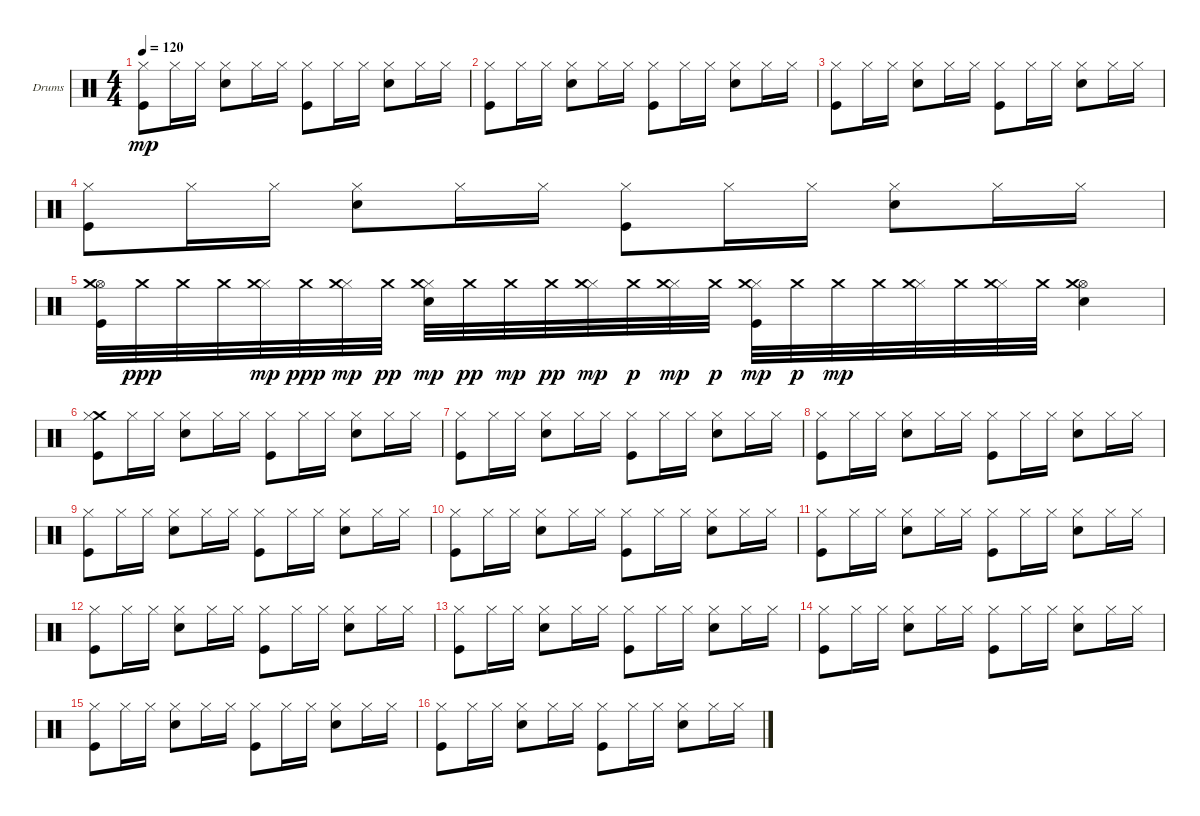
\bracketExtendMode groupsimilarinstruments
\firstSystemTrackNameOrientation horizontal
\otherSystemsTrackNameOrientation horizontal
\track ("Drumkit" "Drums") {instrument percussion}
\staff {score}
\articulation defaults
\ts (4 4)
\tempo 120
\clef neutral
\ks c
("Kick (hit)" "Hi-Hat (closed)").8{dy mp} "Hi-Hat (closed)".16 "Hi-Hat (closed)".16 ("Snare (hit) 2" "Hi-Hat (closed)").8 "Hi-Hat (closed)".16 "Hi-Hat (closed)".16 ("Kick (hit)" "Hi-Hat (closed)").8 "Hi-Hat (closed)".16 "Hi-Hat (closed)".16 ("Snare (hit) 2" "Hi-Hat (closed)").8 "Hi-Hat (closed)".16 "Hi-Hat (closed)".16 |
("Kick (hit)" "Hi-Hat (closed)").8 "Hi-Hat (closed)".16 "Hi-Hat (closed)".16 ("Snare (hit) 2" "Hi-Hat (closed)").8 "Hi-Hat (closed)".16 "Hi-Hat (closed)".16 ("Kick (hit)" "Hi-Hat (closed)").8 "Hi-Hat (closed)".16 "Hi-Hat (closed)".16 ("Snare (hit) 2" "Hi-Hat (closed)").8 "Hi-Hat (closed)".16 "Hi-Hat (closed)".16 |
("Kick (hit)" "Hi-Hat (closed)").8 "Hi-Hat (closed)".16 "Hi-Hat (closed)".16 ("Snare (hit) 2" "Hi-Hat (closed)").8 "Hi-Hat (closed)".16 "Hi-Hat (closed)".16 ("Kick (hit)" "Hi-Hat (closed)").8 "Hi-Hat (closed)".16 "Hi-Hat (closed)".16 ("Hi-Hat (closed)" "Snare (hit) 2").8 "Hi-Hat (closed)".16 "Hi-Hat (closed)".16 |
("Kick (hit)" "Hi-Hat (closed)").8 "Hi-Hat (closed)".16 "Hi-Hat (closed)".16 ("Snare (hit) 2" "Hi-Hat (closed)").8 "Hi-Hat (closed)".16 "Hi-Hat (closed)".16 ("Kick (hit)" "Hi-Hat (closed)").8 "Hi-Hat (closed)".16 "Hi-Hat (closed)".16 ("Snare (hit) 2" "Hi-Hat (closed)").8 "Hi-Hat (closed)".16 "Hi-Hat (closed)".16 |
("Kick (hit)" "Hi-Hat (open)" "Crash medium (hit)").32 "Crash medium (hit)".32{dy ppp} "Crash medium (hit)".32 "Crash medium (hit)".32 ("Hi-Hat (closed)" "Crash medium (hit)").32{dy mp} "Crash medium (hit)".32{dy ppp} ("Hi-Hat (closed)" "Crash medium (hit)").32{dy mp} "Crash medium (hit)".32{dy pp} ("Snare (hit) 2" "Hi-Hat (closed)" "Crash medium (hit)").32{dy mp} "Crash medium (hit)".32{dy pp} "Crash medium (hit)".32{dy mp} "Crash medium (hit)".32{dy pp} ("Hi-Hat (closed)" "Crash medium (hit)").32{dy mp} "Crash medium (hit)".32{dy p} ("Hi-Hat (closed)" "Crash medium (hit)").32{dy mp} "Crash medium (hit)".32{dy p} ("Kick (hit)" "Hi-Hat (closed)" "Crash medium (hit)").32{dy mp} "Crash medium (hit)".32{dy p} "Crash medium (hit)".32{dy mp} "Crash medium (hit)".32 ("Hi-Hat (closed)" "Crash medium (hit)").32 "Crash medium (hit)".32 ("Hi-Hat (closed)" "Crash medium (hit)").32 "Crash medium (hit)".32 ("Snare (hit) 2" "Hi-Hat (open)" "Crash medium (hit)").4 |
("Crash medium (hit)" "Kick (hit)" "Hi-Hat (closed)").8 "Hi-Hat (closed)".16 "Hi-Hat (closed)".16 ("Snare (hit) 2" "Hi-Hat (closed)").8 "Hi-Hat (closed)".16 "Hi-Hat (closed)".16 ("Kick (hit)" "Hi-Hat (closed)").8 "Hi-Hat (closed)".16 "Hi-Hat (closed)".16 ("Snare (hit) 2" "Hi-Hat (closed)").8 "Hi-Hat (closed)".16 "Hi-Hat (closed)".16 |
("Kick (hit)" "Hi-Hat (closed)").8 "Hi-Hat (closed)".16 "Hi-Hat (closed)".16 ("Snare (hit) 2" "Hi-Hat (closed)").8 "Hi-Hat (closed)".16 "Hi-Hat (closed)".16 ("Kick (hit)" "Hi-Hat (closed)").8 "Hi-Hat (closed)".16 "Hi-Hat (closed)".16 ("Snare (hit) 2" "Hi-Hat (closed)").8 "Hi-Hat (closed)".16 "Hi-Hat (closed)".16 |
("Kick (hit)" "Hi-Hat (closed)").8 "Hi-Hat (closed)".16 "Hi-Hat (closed)".16 ("Snare (hit) 2" "Hi-Hat (closed)").8 "Hi-Hat (closed)".16 "Hi-Hat (closed)".16 ("Kick (hit)" "Hi-Hat (closed)").8 "Hi-Hat (closed)".16 "Hi-Hat (closed)".16 ("Snare (hit) 2" "Hi-Hat (closed)").8 "Hi-Hat (closed)".16 "Hi-Hat (closed)".16 |
("Kick (hit)" "Hi-Hat (closed)").8 "Hi-Hat (closed)".16 "Hi-Hat (closed)".16 ("Snare (hit) 2" "Hi-Hat (closed)").8 "Hi-Hat (closed)".16 "Hi-Hat (closed)".16 ("Kick (hit)" "Hi-Hat (closed)").8 "Hi-Hat (closed)".16 "Hi-Hat (closed)".16 ("Snare (hit) 2" "Hi-Hat (closed)").8 "Hi-Hat (closed)".16 "Hi-Hat (closed)".16 |
("Kick (hit)" "Hi-Hat (closed)").8 "Hi-Hat (closed)".16 "Hi-Hat (closed)".16 ("Snare (hit) 2" "Hi-Hat (closed)").8 "Hi-Hat (closed)".16 "Hi-Hat (closed)".16 ("Kick (hit)" "Hi-Hat (closed)").8 "Hi-Hat (closed)".16 "Hi-Hat (closed)".16 ("Snare (hit) 2" "Hi-Hat (closed)").8 "Hi-Hat (closed)".16 "Hi-Hat (closed)".16 |
("Kick (hit)" "Hi-Hat (closed)").8 "Hi-Hat (closed)".16 "Hi-Hat (closed)".16 ("Snare (hit) 2" "Hi-Hat (closed)").8 "Hi-Hat (closed)".16 "Hi-Hat (closed)".16 ("Kick (hit)" "Hi-Hat (closed)").8 "Hi-Hat (closed)".16 "Hi-Hat (closed)".16 ("Snare (hit) 2" "Hi-Hat (closed)").8 "Hi-Hat (closed)".16 "Hi-Hat (closed)".16 |
("Kick (hit)" "Hi-Hat (closed)").8 "Hi-Hat (closed)".16 "Hi-Hat (closed)".16 ("Snare (hit) 2" "Hi-Hat (closed)").8 "Hi-Hat (closed)".16 "Hi-Hat (closed)".16 ("Kick (hit)" "Hi-Hat (closed)").8 "Hi-Hat (closed)".16 "Hi-Hat (closed)".16 ("Snare (hit) 2" "Hi-Hat (closed)").8 "Hi-Hat (closed)".16 "Hi-Hat (closed)".16 |
("Kick (hit)" "Hi-Hat (closed)").8 "Hi-Hat (closed)".16 "Hi-Hat (closed)".16 ("Snare (hit) 2" "Hi-Hat (closed)").8 "Hi-Hat (closed)".16 "Hi-Hat (closed)".16 ("Kick (hit)" "Hi-Hat (closed)").8 "Hi-Hat (closed)".16 "Hi-Hat (closed)".16 ("Snare (hit) 2" "Hi-Hat (closed)").8 "Hi-Hat (closed)".16 "Hi-Hat (closed)".16 |
("Kick (hit)" "Hi-Hat (closed)").8 "Hi-Hat (closed)".16 "Hi-Hat (closed)".16 ("Snare (hit) 2" "Hi-Hat (closed)").8 "Hi-Hat (closed)".16 "Hi-Hat (closed)".16 ("Kick (hit)" "Hi-Hat (closed)").8 "Hi-Hat (closed)".16 "Hi-Hat (closed)".16 ("Snare (hit) 2" "Hi-Hat (closed)").8 "Hi-Hat (closed)".16 "Hi-Hat (closed)".16 |
("Kick (hit)" "Hi-Hat (closed)").8 "Hi-Hat (closed)".16 "Hi-Hat (closed)".16 ("Snare (hit) 2" "Hi-Hat (closed)").8 "Hi-Hat (closed)".16 "Hi-Hat (closed)".16 ("Kick (hit)" "Hi-Hat (closed)").8 "Hi-Hat (closed)".16 "Hi-Hat (closed)".16 ("Snare (hit) 2" "Hi-Hat (closed)").8 "Hi-Hat (closed)".16 "Hi-Hat (closed)".16 |
("Kick (hit)" "Hi-Hat (closed)").8 "Hi-Hat (closed)".16 "Hi-Hat (closed)".16 ("Snare (hit) 2" "Hi-Hat (closed)").8 "Hi-Hat (closed)".16 "Hi-Hat (closed)".16 ("Kick (hit)" "Hi-Hat (closed)").8 "Hi-Hat (closed)".16 "Hi-Hat (closed)".16 ("Snare (hit) 2" "Hi-Hat (closed)").8 "Hi-Hat (closed)".16 "Hi-Hat (closed)".16
